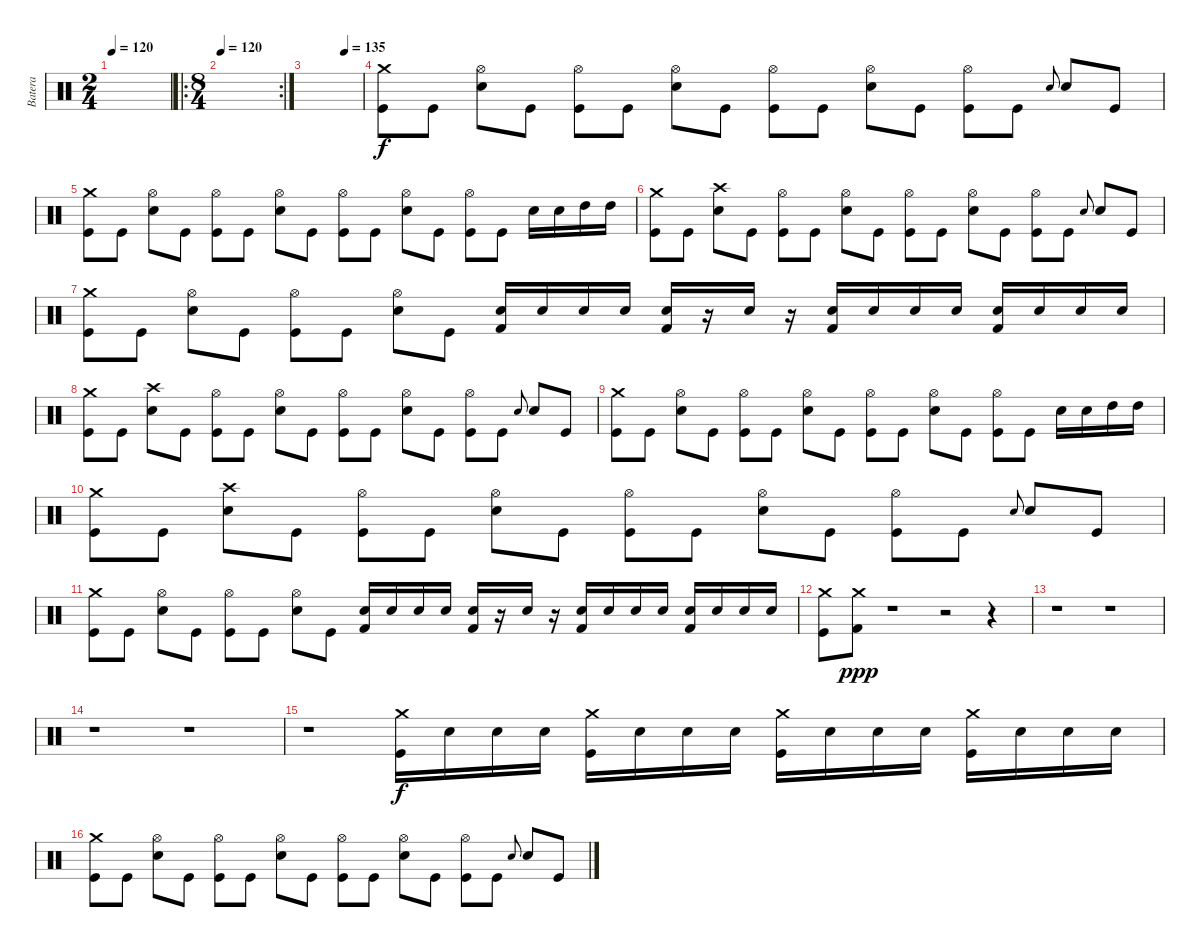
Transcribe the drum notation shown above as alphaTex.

\track ("Batera" "Batera") {instrument percussion}
\staff {score}
\articulation defaults
\ts (2 4)
\tempo 120
\clef neutral
\ks c
|
\ro
\rc 2
\ts (8 4)
\tempo 120
|
\tempo (135 0.6875)
|
("Kick (hit)" "Crash medium (hit)").8 "Kick (hit)".8 ("Snare (hit) 2" "Hi-Hat (open)").8 "Kick (hit)".8 ("Kick (hit)" "Hi-Hat (open)").8 "Kick (hit)".8 ("Snare (hit) 2" "Hi-Hat (open)").8 "Kick (hit)".8 ("Kick (hit)" "Hi-Hat (open)").8 "Kick (hit)".8 ("Snare (hit) 2" "Hi-Hat (open)").8 "Kick (hit)".8 ("Kick (hit)" "Hi-Hat (open)").8 "Kick (hit)".8 "Snare (hit) 2".8{gr onbeat} "Snare (hit) 2".8 "Kick (hit)".8 |
("Kick (hit)" "Crash medium (hit)").8 "Kick (hit)".8 ("Snare (hit) 2" "Hi-Hat (open)").8 "Kick (hit)".8 ("Kick (hit)" "Hi-Hat (open)").8 "Kick (hit)".8 ("Snare (hit) 2" "Hi-Hat (open)").8 "Kick (hit)".8 ("Kick (hit)" "Hi-Hat (open)").8 "Kick (hit)".8 ("Snare (hit) 2" "Hi-Hat (open)").8 "Kick (hit)".8 ("Kick (hit)" "Hi-Hat (open)").8 "Kick (hit)".8 "Snare (hit) 2".16 "Snare (hit) 2".16 "High Tom (hit)".16 "High Tom (hit)".16 |
("Kick (hit)" "Crash medium (hit)").8 "Kick (hit)".8 ("Snare (hit) 2" "Crash high (hit)").8 "Kick (hit)".8 ("Kick (hit)" "Hi-Hat (open)").8 "Kick (hit)".8 ("Snare (hit) 2" "Hi-Hat (open)").8 "Kick (hit)".8 ("Kick (hit)" "Hi-Hat (open)").8 "Kick (hit)".8 ("Snare (hit) 2" "Hi-Hat (open)").8 "Kick (hit)".8 ("Kick (hit)" "Hi-Hat (open)").8 "Kick (hit)".8 "Snare (hit) 2".8{gr onbeat} "Snare (hit) 2".8 "Kick (hit)".8 |
("Kick (hit)" "Crash medium (hit)").8 "Kick (hit)".8 ("Snare (hit) 2" "Hi-Hat (open)").8 "Kick (hit)".8 ("Kick (hit)" "Hi-Hat (open)").8 "Kick (hit)".8 ("Snare (hit) 2" "Hi-Hat (open)").8 "Kick (hit)".8 ("Snare (hit) 2" "Kick (hit) 2").16 "Snare (hit) 2".16 "Snare (hit) 2".16 "Snare (hit) 2".16 ("Snare (hit) 2" "Kick (hit) 2").16 r.16 "Snare (hit) 2".16 r.16 ("Snare (hit) 2" "Kick (hit) 2").16 "Snare (hit) 2".16 "Snare (hit) 2".16 "Snare (hit) 2".16 ("Snare (hit) 2" "Kick (hit) 2").16 "Snare (hit) 2".16 "Snare (hit) 2".16 "Snare (hit) 2".16 |
("Kick (hit)" "Crash medium (hit)").8 "Kick (hit)".8 ("Snare (hit) 2" "Crash high (hit)").8 "Kick (hit)".8 ("Kick (hit)" "Hi-Hat (open)").8 "Kick (hit)".8 ("Snare (hit) 2" "Hi-Hat (open)").8 "Kick (hit)".8 ("Kick (hit)" "Hi-Hat (open)").8 "Kick (hit)".8 ("Snare (hit) 2" "Hi-Hat (open)").8 "Kick (hit)".8 ("Kick (hit)" "Hi-Hat (open)").8 "Kick (hit)".8 "Snare (hit) 2".8{gr onbeat} "Snare (hit) 2".8 "Kick (hit)".8 |
("Kick (hit)" "Crash medium (hit)").8 "Kick (hit)".8 ("Snare (hit) 2" "Hi-Hat (open)").8 "Kick (hit)".8 ("Kick (hit)" "Hi-Hat (open)").8 "Kick (hit)".8 ("Snare (hit) 2" "Hi-Hat (open)").8 "Kick (hit)".8 ("Kick (hit)" "Hi-Hat (open)").8 "Kick (hit)".8 ("Snare (hit) 2" "Hi-Hat (open)").8 "Kick (hit)".8 ("Kick (hit)" "Hi-Hat (open)").8 "Kick (hit)".8 "Snare (hit) 2".16 "Snare (hit) 2".16 "High Tom (hit)".16 "High Tom (hit)".16 |
("Kick (hit)" "Crash medium (hit)").8 "Kick (hit)".8 ("Snare (hit) 2" "Crash high (hit)").8 "Kick (hit)".8 ("Kick (hit)" "Hi-Hat (open)").8 "Kick (hit)".8 ("Snare (hit) 2" "Hi-Hat (open)").8 "Kick (hit)".8 ("Kick (hit)" "Hi-Hat (open)").8 "Kick (hit)".8 ("Snare (hit) 2" "Hi-Hat (open)").8 "Kick (hit)".8 ("Kick (hit)" "Hi-Hat (open)").8 "Kick (hit)".8 "Snare (hit) 2".8{gr onbeat} "Snare (hit) 2".8 "Kick (hit)".8 |
("Kick (hit)" "Crash medium (hit)").8 "Kick (hit)".8 ("Snare (hit) 2" "Hi-Hat (open)").8 "Kick (hit)".8 ("Kick (hit)" "Hi-Hat (open)").8 "Kick (hit)".8 ("Snare (hit) 2" "Hi-Hat (open)").8 "Kick (hit)".8 ("Snare (hit) 2" "Kick (hit) 2").16 "Snare (hit) 2".16 "Snare (hit) 2".16 "Snare (hit) 2".16 ("Snare (hit) 2" "Kick (hit) 2").16 r.16 "Snare (hit) 2".16 r.16 ("Snare (hit) 2" "Kick (hit) 2").16 "Snare (hit) 2".16 "Snare (hit) 2".16 "Snare (hit) 2".16 ("Snare (hit) 2" "Kick (hit) 2").16 "Snare (hit) 2".16 "Snare (hit) 2".16 "Snare (hit) 2".16 |
("Kick (hit)" "Crash medium (hit)").8 ("Kick (hit) 2" "Crash medium (hit)").8{dy ppp} r.1 r.2 r.4 |
r.1 r.1 |
r.1 r.1 |
r.1 ("Crash medium (hit)" "Kick (hit)").16{dy f} "Snare (hit) 2".16 "Snare (hit) 2".16 "Snare (hit) 2".16 ("Kick (hit)" "Crash medium (hit)").16 "Snare (hit) 2".16 "Snare (hit) 2".16 "Snare (hit) 2".16 ("Kick (hit)" "Crash medium (hit)").16 "Snare (hit) 2".16 "Snare (hit) 2".16 "Snare (hit) 2".16 ("Kick (hit)" "Crash medium (hit)").16 "Snare (hit) 2".16 "Snare (hit) 2".16 "Snare (hit) 2".16 |
("Kick (hit)" "Crash medium (hit)").8 "Kick (hit)".8 ("Snare (hit) 2" "Hi-Hat (open)").8 "Kick (hit)".8 ("Kick (hit)" "Hi-Hat (open)").8 "Kick (hit)".8 ("Snare (hit) 2" "Hi-Hat (open)").8 "Kick (hit)".8 ("Kick (hit)" "Hi-Hat (open)").8 "Kick (hit)".8 ("Snare (hit) 2" "Hi-Hat (open)").8 "Kick (hit)".8 ("Kick (hit)" "Hi-Hat (open)").8 "Kick (hit)".8 "Snare (hit) 2".8{gr onbeat} "Snare (hit) 2".8 "Kick (hit)".8
